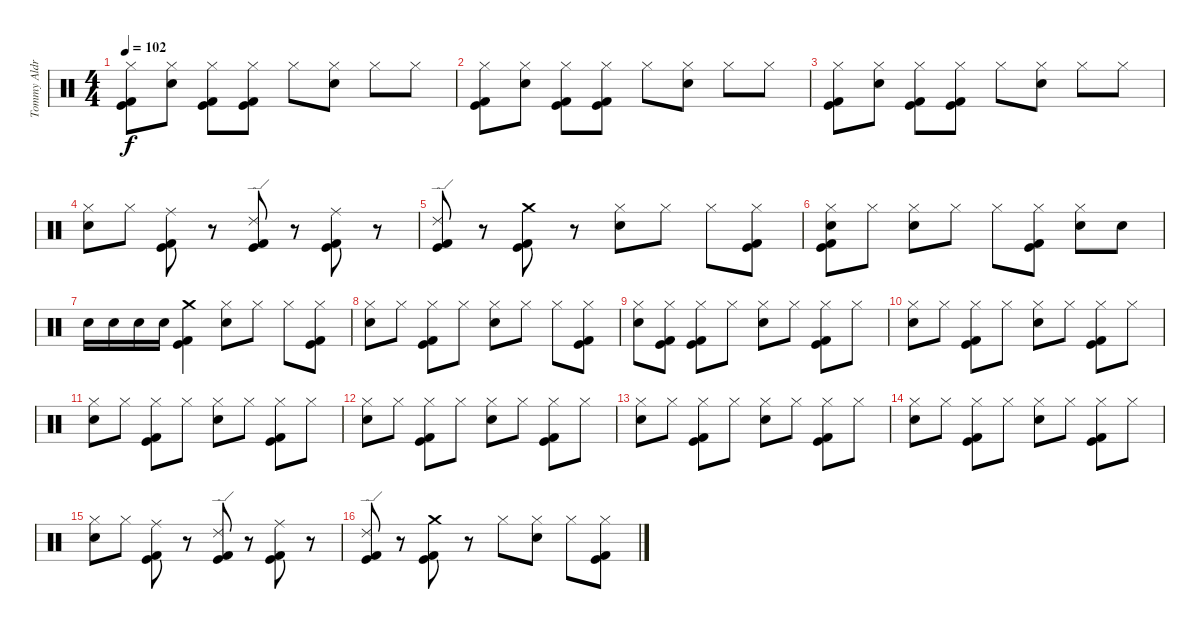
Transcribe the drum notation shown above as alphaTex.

\track ("Tommy Aldridge" "Tommy Aldr") {instrument percussion}
\staff {score}
\articulation defaults
\ts (4 4)
\tempo 102
\clef neutral
\ks c
("Hi-Hat (closed)" "Kick (hit)" "Kick (hit) 2").8{dy f} ("Hi-Hat (closed)" "Electric Snare (hit)").8 ("Hi-Hat (closed)" "Kick (hit)" "Kick (hit) 2").8 ("Hi-Hat (closed)" "Kick (hit)" "Kick (hit) 2").8 "Hi-Hat (closed)".8 ("Hi-Hat (closed)" "Electric Snare (hit)").8 "Hi-Hat (closed)".8 "Hi-Hat (closed)".8 |
("Hi-Hat (closed)" "Kick (hit)" "Kick (hit) 2").8 ("Hi-Hat (closed)" "Electric Snare (hit)").8 ("Hi-Hat (closed)" "Kick (hit)" "Kick (hit) 2").8 ("Hi-Hat (closed)" "Kick (hit)" "Kick (hit) 2").8 "Hi-Hat (closed)".8 ("Hi-Hat (closed)" "Electric Snare (hit)").8 "Hi-Hat (closed)".8 "Hi-Hat (closed)".8 |
("Hi-Hat (closed)" "Kick (hit)" "Kick (hit) 2").8 ("Hi-Hat (closed)" "Electric Snare (hit)").8 ("Hi-Hat (closed)" "Kick (hit)" "Kick (hit) 2").8 ("Hi-Hat (closed)" "Kick (hit)" "Kick (hit) 2").8 "Hi-Hat (closed)".8 ("Hi-Hat (closed)" "Electric Snare (hit)").8 "Hi-Hat (closed)".8 "Hi-Hat (closed)".8 |
("Hi-Hat (closed)" "Electric Snare (hit)").8 "Hi-Hat (closed)".8 ("Ride (middle)" "Kick (hit)" "Kick (hit) 2").8 r.8 ("Ride (edge) 2" "Kick (hit)" "Kick (hit) 2").8 r.8 ("Ride (middle)" "Kick (hit)" "Kick (hit) 2").8 r.8 |
("Ride (edge) 2" "Kick (hit)" "Kick (hit) 2").8 r.8 ("Crash medium (hit)" "Kick (hit)" "Kick (hit) 2").8 r.8 ("Hi-Hat (closed)" "Electric Snare (hit)").8 "Hi-Hat (closed)".8 "Hi-Hat (closed)".8 ("Hi-Hat (closed)" "Kick (hit)" "Kick (hit) 2").8 |
("Hi-Hat (closed)" "Electric Snare (hit)" "Kick (hit)" "Kick (hit) 2").8 "Hi-Hat (closed)".8 ("Hi-Hat (closed)" "Electric Snare (hit)").8 "Hi-Hat (closed)".8 "Hi-Hat (closed)".8 ("Hi-Hat (closed)" "Kick (hit)" "Kick (hit) 2").8 ("Hi-Hat (closed)" "Electric Snare (hit)").8 "Electric Snare (hit)".8 |
"Electric Snare (hit)".16 "Electric Snare (hit)".16 "Electric Snare (hit)".16 "Electric Snare (hit)".16 ("Crash medium (hit)" "Kick (hit)" "Kick (hit) 2").4 ("Hi-Hat (closed)" "Electric Snare (hit)").8 "Hi-Hat (closed)".8 "Hi-Hat (closed)".8 ("Hi-Hat (closed)" "Kick (hit)" "Kick (hit) 2").8 |
("Hi-Hat (closed)" "Electric Snare (hit)").8 "Hi-Hat (closed)".8 ("Hi-Hat (closed)" "Kick (hit)" "Kick (hit) 2").8 "Hi-Hat (closed)".8 ("Hi-Hat (closed)" "Electric Snare (hit)").8 "Hi-Hat (closed)".8 "Hi-Hat (closed)".8 ("Hi-Hat (closed)" "Kick (hit)" "Kick (hit) 2").8 |
("Hi-Hat (closed)" "Electric Snare (hit)").8 ("Hi-Hat (closed)" "Kick (hit)" "Kick (hit) 2").8 ("Hi-Hat (closed)" "Kick (hit)" "Kick (hit) 2").8 "Hi-Hat (closed)".8 ("Hi-Hat (closed)" "Electric Snare (hit)").8 "Hi-Hat (closed)".8 ("Hi-Hat (closed)" "Kick (hit)" "Kick (hit) 2").8 "Hi-Hat (closed)".8 |
("Hi-Hat (closed)" "Electric Snare (hit)").8 "Hi-Hat (closed)".8 ("Hi-Hat (closed)" "Kick (hit)" "Kick (hit) 2").8 "Hi-Hat (closed)".8 ("Hi-Hat (closed)" "Electric Snare (hit)").8 "Hi-Hat (closed)".8 ("Hi-Hat (closed)" "Kick (hit)" "Kick (hit) 2").8 "Hi-Hat (closed)".8 |
("Hi-Hat (closed)" "Electric Snare (hit)").8 "Hi-Hat (closed)".8 ("Hi-Hat (closed)" "Kick (hit)" "Kick (hit) 2").8 "Hi-Hat (closed)".8 ("Hi-Hat (closed)" "Electric Snare (hit)").8 "Hi-Hat (closed)".8 ("Hi-Hat (closed)" "Kick (hit)" "Kick (hit) 2").8 "Hi-Hat (closed)".8 |
("Hi-Hat (closed)" "Electric Snare (hit)").8 "Hi-Hat (closed)".8 ("Hi-Hat (closed)" "Kick (hit)" "Kick (hit) 2").8 "Hi-Hat (closed)".8 ("Hi-Hat (closed)" "Electric Snare (hit)").8 "Hi-Hat (closed)".8 ("Hi-Hat (closed)" "Kick (hit)" "Kick (hit) 2").8 "Hi-Hat (closed)".8 |
("Hi-Hat (closed)" "Electric Snare (hit)").8 "Hi-Hat (closed)".8 ("Hi-Hat (closed)" "Kick (hit)" "Kick (hit) 2").8 "Hi-Hat (closed)".8 ("Hi-Hat (closed)" "Electric Snare (hit)").8 "Hi-Hat (closed)".8 ("Hi-Hat (closed)" "Kick (hit)" "Kick (hit) 2").8 "Hi-Hat (closed)".8 |
("Hi-Hat (closed)" "Electric Snare (hit)").8 "Hi-Hat (closed)".8 ("Hi-Hat (closed)" "Kick (hit)" "Kick (hit) 2").8 "Hi-Hat (closed)".8 ("Hi-Hat (closed)" "Electric Snare (hit)").8 "Hi-Hat (closed)".8 ("Hi-Hat (closed)" "Kick (hit)" "Kick (hit) 2").8 "Hi-Hat (closed)".8 |
("Hi-Hat (closed)" "Electric Snare (hit)").8 "Hi-Hat (closed)".8 ("Ride (middle)" "Kick (hit)" "Kick (hit) 2").8 r.8 ("Ride (edge) 2" "Kick (hit)" "Kick (hit) 2").8 r.8 ("Ride (middle)" "Kick (hit)" "Kick (hit) 2").8 r.8 |
("Ride (edge) 2" "Kick (hit)" "Kick (hit) 2").8 r.8 ("Crash medium (hit)" "Kick (hit)" "Kick (hit) 2").8 r.8 "Hi-Hat (closed)".8 ("Hi-Hat (closed)" "Electric Snare (hit)").8 "Hi-Hat (closed)".8 ("Hi-Hat (closed)" "Kick (hit)" "Kick (hit) 2").8
